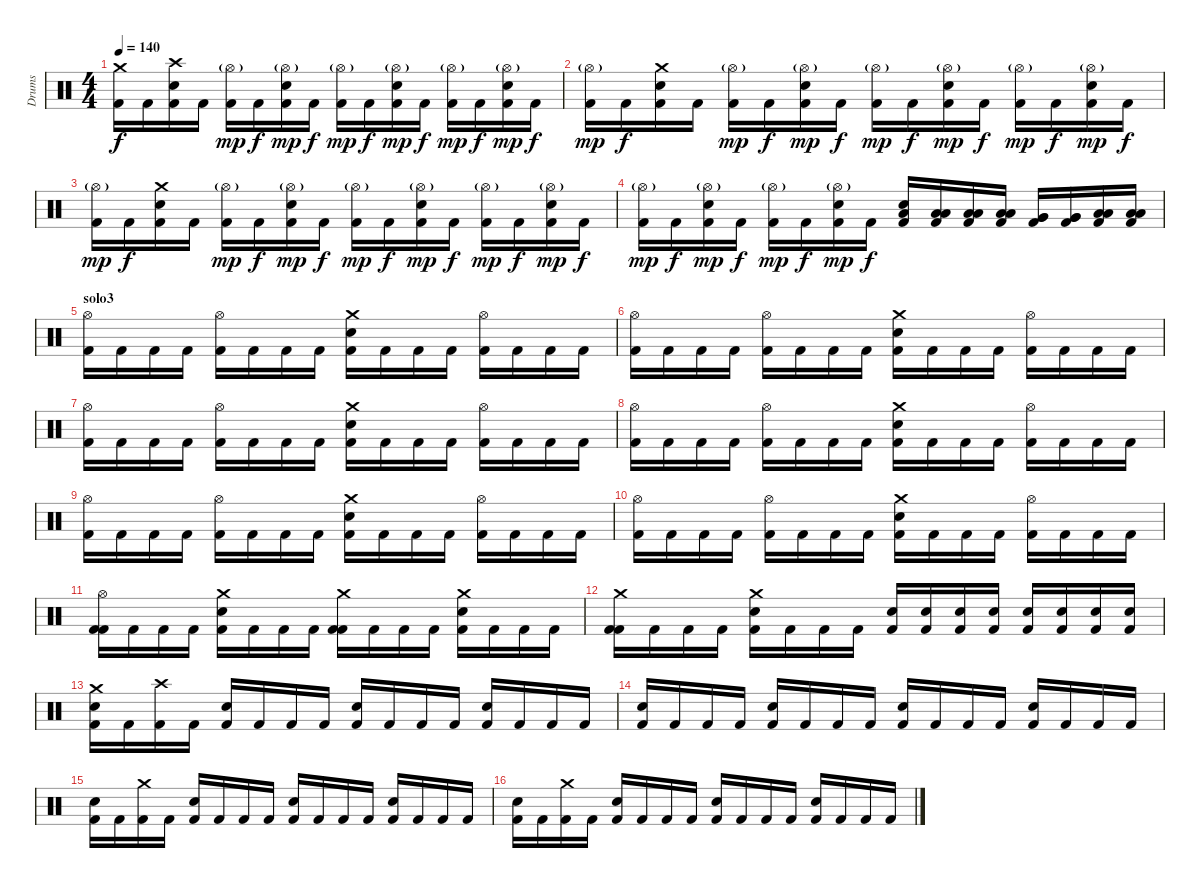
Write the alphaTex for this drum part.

\track ("Drums" "Drums") {instrument percussion}
\staff {score}
\articulation defaults
\ts (4 4)
\tempo 140
\clef neutral
\ks c
("Crash medium (hit)" "Kick (hit) 2").16{dy f} "Kick (hit) 2".16 ("Crash high (hit)" "Electric Snare (hit)" "Kick (hit) 2").16 "Kick (hit) 2".16 ("Hi-Hat (open)"{g} "Kick (hit) 2").16{dy mp} "Kick (hit) 2".16{dy f} ("Hi-Hat (open)"{g} "Electric Snare (hit)" "Kick (hit) 2").16{dy mp} "Kick (hit) 2".16{dy f} ("Hi-Hat (open)"{g} "Kick (hit) 2").16{dy mp} "Kick (hit) 2".16{dy f} ("Hi-Hat (open)"{g} "Electric Snare (hit)" "Kick (hit) 2").16{dy mp} "Kick (hit) 2".16{dy f} ("Hi-Hat (open)"{g} "Kick (hit) 2").16{dy mp} "Kick (hit) 2".16{dy f} ("Hi-Hat (open)"{g} "Electric Snare (hit)" "Kick (hit) 2").16{dy mp} "Kick (hit) 2".16{dy f} |
("Hi-Hat (open)"{g} "Kick (hit) 2").16{dy mp} "Kick (hit) 2".16{dy f} ("Crash medium (hit)" "Electric Snare (hit)" "Kick (hit) 2").16 "Kick (hit) 2".16 ("Hi-Hat (open)"{g} "Kick (hit) 2").16{dy mp} "Kick (hit) 2".16{dy f} ("Hi-Hat (open)"{g} "Electric Snare (hit)" "Kick (hit) 2").16{dy mp} "Kick (hit) 2".16{dy f} ("Hi-Hat (open)"{g} "Kick (hit) 2").16{dy mp} "Kick (hit) 2".16{dy f} ("Hi-Hat (open)"{g} "Electric Snare (hit)" "Kick (hit) 2").16{dy mp} "Kick (hit) 2".16{dy f} ("Hi-Hat (open)"{g} "Kick (hit) 2").16{dy mp} "Kick (hit) 2".16{dy f} ("Hi-Hat (open)"{g} "Electric Snare (hit)" "Kick (hit) 2").16{dy mp} "Kick (hit) 2".16{dy f} |
("Hi-Hat (open)"{g} "Kick (hit) 2").16{dy mp} "Kick (hit) 2".16{dy f} ("Crash medium (hit)" "Electric Snare (hit)" "Kick (hit) 2").16 "Kick (hit) 2".16 ("Hi-Hat (open)"{g} "Kick (hit) 2").16{dy mp} "Kick (hit) 2".16{dy f} ("Hi-Hat (open)"{g} "Electric Snare (hit)" "Kick (hit) 2").16{dy mp} "Kick (hit) 2".16{dy f} ("Hi-Hat (open)"{g} "Kick (hit) 2").16{dy mp} "Kick (hit) 2".16{dy f} ("Hi-Hat (open)"{g} "Electric Snare (hit)" "Kick (hit) 2").16{dy mp} "Kick (hit) 2".16{dy f} ("Hi-Hat (open)"{g} "Kick (hit) 2").16{dy mp} "Kick (hit) 2".16{dy f} ("Hi-Hat (open)"{g} "Electric Snare (hit)" "Kick (hit) 2").16{dy mp} "Kick (hit) 2".16{dy f} |
("Hi-Hat (open)"{g} "Kick (hit) 2").16{dy mp} "Kick (hit) 2".16{dy f} ("Hi-Hat (open)"{g} "Electric Snare (hit)" "Kick (hit) 2").16{dy mp} "Kick (hit) 2".16{dy f} ("Hi-Hat (open)"{g} "Kick (hit) 2").16{dy mp} "Kick (hit) 2".16{dy f} ("Hi-Hat (open)"{g} "Electric Snare (hit)" "Kick (hit) 2").16{dy mp} "Kick (hit) 2".16{dy f} ("Electric Snare (hit)" "Kick (hit) 2" "Low Tom (hit)").16 ("Low Tom (hit)" "Kick (hit) 2" "Low Tom (hit)").16 ("Low Tom (hit)" "Kick (hit) 2" "Low Tom (hit)").16 ("Low Tom (hit)" "Kick (hit) 2" "Low Tom (hit)").16 ("Very Low Tom (hit)" "Kick (hit) 2" "Very Low Tom (hit)").16 ("Very Low Tom (hit)" "Kick (hit) 2" "Very Low Tom (hit)").16 ("Low Floor Tom (hit)" "Kick (hit) 2" "Low Floor Tom (hit)").16 ("Low Floor Tom (hit)" "Kick (hit) 2" "Low Floor Tom (hit)").16 |
\section ("" "solo3")
("Hi-Hat (open)" "Kick (hit) 2").16 "Kick (hit) 2".16 "Kick (hit) 2".16 "Kick (hit) 2".16 ("Hi-Hat (open)" "Kick (hit) 2").16 "Kick (hit) 2".16 "Kick (hit) 2".16 "Kick (hit) 2".16 ("Crash medium (hit)" "Electric Snare (hit)" "Kick (hit) 2").16 "Kick (hit) 2".16 "Kick (hit) 2".16 "Kick (hit) 2".16 ("Hi-Hat (open)" "Kick (hit) 2").16 "Kick (hit) 2".16 "Kick (hit) 2".16 "Kick (hit) 2".16 |
("Hi-Hat (open)" "Kick (hit) 2").16 "Kick (hit) 2".16 "Kick (hit) 2".16 "Kick (hit) 2".16 ("Hi-Hat (open)" "Kick (hit) 2").16 "Kick (hit) 2".16 "Kick (hit) 2".16 "Kick (hit) 2".16 ("Crash medium (hit)" "Electric Snare (hit)" "Kick (hit) 2").16 "Kick (hit) 2".16 "Kick (hit) 2".16 "Kick (hit) 2".16 ("Hi-Hat (open)" "Kick (hit) 2").16 "Kick (hit) 2".16 "Kick (hit) 2".16 "Kick (hit) 2".16 |
("Hi-Hat (open)" "Kick (hit) 2").16 "Kick (hit) 2".16 "Kick (hit) 2".16 "Kick (hit) 2".16 ("Hi-Hat (open)" "Kick (hit) 2").16 "Kick (hit) 2".16 "Kick (hit) 2".16 "Kick (hit) 2".16 ("Crash medium (hit)" "Electric Snare (hit)" "Kick (hit) 2").16 "Kick (hit) 2".16 "Kick (hit) 2".16 "Kick (hit) 2".16 ("Hi-Hat (open)" "Kick (hit) 2").16 "Kick (hit) 2".16 "Kick (hit) 2".16 "Kick (hit) 2".16 |
("Hi-Hat (open)" "Kick (hit) 2").16 "Kick (hit) 2".16 "Kick (hit) 2".16 "Kick (hit) 2".16 ("Hi-Hat (open)" "Kick (hit) 2").16 "Kick (hit) 2".16 "Kick (hit) 2".16 "Kick (hit) 2".16 ("Crash medium (hit)" "Electric Snare (hit)" "Kick (hit) 2").16 "Kick (hit) 2".16 "Kick (hit) 2".16 "Kick (hit) 2".16 ("Hi-Hat (open)" "Kick (hit) 2").16 "Kick (hit) 2".16 "Kick (hit) 2".16 "Kick (hit) 2".16 |
("Hi-Hat (open)" "Kick (hit) 2").16 "Kick (hit) 2".16 "Kick (hit) 2".16 "Kick (hit) 2".16 ("Hi-Hat (open)" "Kick (hit) 2").16 "Kick (hit) 2".16 "Kick (hit) 2".16 "Kick (hit) 2".16 ("Crash medium (hit)" "Electric Snare (hit)" "Kick (hit) 2").16 "Kick (hit) 2".16 "Kick (hit) 2".16 "Kick (hit) 2".16 ("Hi-Hat (open)" "Kick (hit) 2").16 "Kick (hit) 2".16 "Kick (hit) 2".16 "Kick (hit) 2".16 |
("Hi-Hat (open)" "Kick (hit) 2").16 "Kick (hit) 2".16 "Kick (hit) 2".16 "Kick (hit) 2".16 ("Hi-Hat (open)" "Kick (hit) 2").16 "Kick (hit) 2".16 "Kick (hit) 2".16 "Kick (hit) 2".16 ("Crash medium (hit)" "Electric Snare (hit)" "Kick (hit) 2").16 "Kick (hit) 2".16 "Kick (hit) 2".16 "Kick (hit) 2".16 ("Hi-Hat (open)" "Kick (hit) 2").16 "Kick (hit) 2".16 "Kick (hit) 2".16 "Kick (hit) 2".16 |
("Hi-Hat (open)" "Kick (hit) 2" "Kick (hit) 2").16 "Kick (hit) 2".16 "Kick (hit) 2".16 "Kick (hit) 2".16 ("Crash medium (hit)" "Electric Snare (hit)" "Kick (hit) 2").16 "Kick (hit) 2".16 "Kick (hit) 2".16 "Kick (hit) 2".16 ("Crash medium (hit)" "Kick (hit) 2" "Kick (hit) 2").16 "Kick (hit) 2".16 "Kick (hit) 2".16 "Kick (hit) 2".16 ("Crash medium (hit)" "Electric Snare (hit)" "Kick (hit) 2").16 "Kick (hit) 2".16 "Kick (hit) 2".16 "Kick (hit) 2".16 |
("Crash medium (hit)" "Kick (hit) 2" "Kick (hit) 2").16 "Kick (hit) 2".16 "Kick (hit) 2".16 "Kick (hit) 2".16 ("Crash medium (hit)" "Electric Snare (hit)" "Kick (hit) 2").16 "Kick (hit) 2".16 "Kick (hit) 2".16 "Kick (hit) 2".16 ("Electric Snare (hit)" "Kick (hit) 2").16 ("Electric Snare (hit)" "Kick (hit) 2").16 ("Electric Snare (hit)" "Kick (hit) 2").16 ("Electric Snare (hit)" "Kick (hit) 2").16 ("Electric Snare (hit)" "Kick (hit) 2").16 ("Electric Snare (hit)" "Kick (hit) 2").16 ("Electric Snare (hit)" "Kick (hit) 2").16 ("Electric Snare (hit)" "Kick (hit) 2").16 |
("Crash medium (hit)" "Electric Snare (hit)" "Kick (hit) 2").16 "Kick (hit) 2".16 ("Crash high (hit)" "Kick (hit) 2").16 "Kick (hit) 2".16 ("Electric Snare (hit)" "Kick (hit) 2").16 "Kick (hit) 2".16 "Kick (hit) 2".16 "Kick (hit) 2".16 ("Electric Snare (hit)" "Kick (hit) 2").16 "Kick (hit) 2".16 "Kick (hit) 2".16 "Kick (hit) 2".16 ("Electric Snare (hit)" "Kick (hit) 2").16 "Kick (hit) 2".16 "Kick (hit) 2".16 "Kick (hit) 2".16 |
("Electric Snare (hit)" "Kick (hit) 2").16 "Kick (hit) 2".16 "Kick (hit) 2".16 "Kick (hit) 2".16 ("Electric Snare (hit)" "Kick (hit) 2").16 "Kick (hit) 2".16 "Kick (hit) 2".16 "Kick (hit) 2".16 ("Electric Snare (hit)" "Kick (hit) 2").16 "Kick (hit) 2".16 "Kick (hit) 2".16 "Kick (hit) 2".16 ("Electric Snare (hit)" "Kick (hit) 2").16 "Kick (hit) 2".16 "Kick (hit) 2".16 "Kick (hit) 2".16 |
("Electric Snare (hit)" "Kick (hit) 2").16 "Kick (hit) 2".16 ("Crash medium (hit)" "Kick (hit) 2").16 "Kick (hit) 2".16 ("Electric Snare (hit)" "Kick (hit) 2").16 "Kick (hit) 2".16 "Kick (hit) 2".16 "Kick (hit) 2".16 ("Electric Snare (hit)" "Kick (hit) 2").16 "Kick (hit) 2".16 "Kick (hit) 2".16 "Kick (hit) 2".16 ("Electric Snare (hit)" "Kick (hit) 2").16 "Kick (hit) 2".16 "Kick (hit) 2".16 "Kick (hit) 2".16 |
("Electric Snare (hit)" "Kick (hit) 2").16 "Kick (hit) 2".16 ("Crash medium (hit)" "Kick (hit) 2").16 "Kick (hit) 2".16 ("Electric Snare (hit)" "Kick (hit) 2").16 "Kick (hit) 2".16 "Kick (hit) 2".16 "Kick (hit) 2".16 ("Electric Snare (hit)" "Kick (hit) 2").16 "Kick (hit) 2".16 "Kick (hit) 2".16 "Kick (hit) 2".16 ("Electric Snare (hit)" "Kick (hit) 2").16 "Kick (hit) 2".16 "Kick (hit) 2".16 "Kick (hit) 2".16
